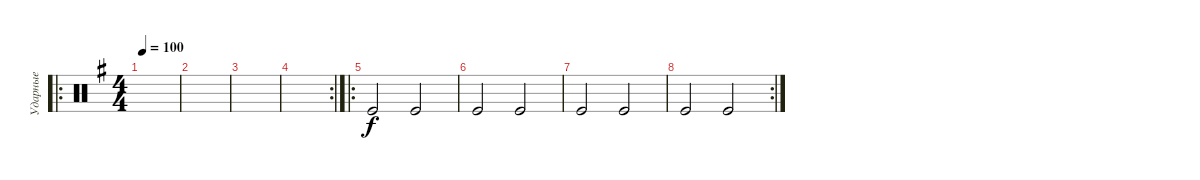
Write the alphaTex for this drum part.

\track ("Ударные" "Ударные") {instrument percussion}
\staff {score}
\articulation defaults
\ro
\ts (4 4)
\tempo 100
\clef neutral
\ks eminor
|
|
|
\rc 2
|
\ro "Kick (hit)".2 "Kick (hit)".2
|
"Kick (hit)".2 "Kick (hit)".2 |
"Kick (hit)".2 "Kick (hit)".2 |
\rc 2 "Kick (hit)".2 "Kick (hit)".2
